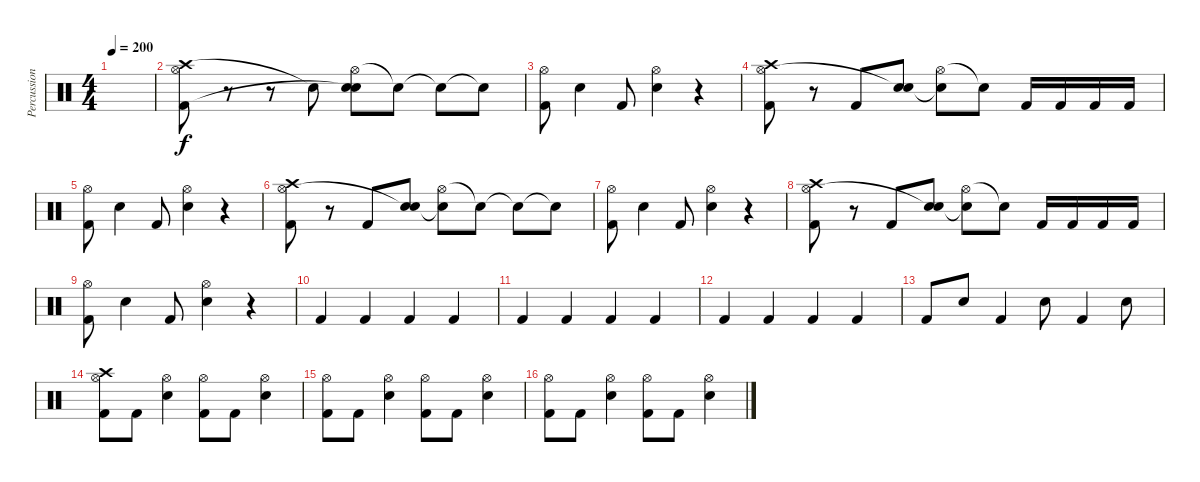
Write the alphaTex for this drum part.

\track ("Percussion" "Percussion") {instrument percussion}
\staff {score}
\articulation defaults
\ts (4 4)
\tempo 200
\clef neutral
\ks c
|
("Crash high (hit)" "Hi-Hat (open)" "Kick (hit) 2").8 r.8 r.8 "Electric Snare (hit)"{t}.8 ("Hi-Hat (open)" "Electric Snare (hit)" "Snare (hit)"{t}).8 "Snare (hit)"{t}.8 "Snare (hit)"{t}.8 "Snare (hit)"{t}.8 |
("Hi-Hat (open)" "Kick (hit) 2").8 "Electric Snare (hit)".4 "Kick (hit) 2".8 ("Hi-Hat (open)" "Electric Snare (hit)").4 r.4 |
("Crash high (hit)" "Hi-Hat (open)" "Kick (hit) 2").8 r.8 "Kick (hit) 2".8 ("Electric Snare (hit)" "Electric Snare (hit)"{t}).8 ("Hi-Hat (open)" "Snare (hit)"{t}).8 "Snare (hit)"{t}.8 "Kick (hit) 2".16 "Kick (hit) 2".16 "Kick (hit) 2".16 "Kick (hit) 2".16 |
("Hi-Hat (open)" "Kick (hit) 2").8 "Electric Snare (hit)".4 "Kick (hit) 2".8 ("Hi-Hat (open)" "Electric Snare (hit)").4 r.4 |
("Crash high (hit)" "Hi-Hat (open)" "Kick (hit) 2").8 r.8 "Kick (hit) 2".8 ("Electric Snare (hit)" "Electric Snare (hit)"{t}).8 ("Hi-Hat (open)" "Snare (hit)"{t}).8 "Snare (hit)"{t}.8 "Snare (hit)"{t}.8 "Snare (hit)"{t}.8 |
("Hi-Hat (open)" "Kick (hit) 2").8 "Electric Snare (hit)".4 "Kick (hit) 2".8 ("Hi-Hat (open)" "Electric Snare (hit)").4 r.4 |
("Crash high (hit)" "Hi-Hat (open)" "Kick (hit) 2").8 r.8 "Kick (hit) 2".8 ("Electric Snare (hit)" "Electric Snare (hit)"{t}).8 ("Hi-Hat (open)" "Snare (hit)"{t}).8 "Snare (hit)"{t}.8 "Kick (hit) 2".16 "Kick (hit) 2".16 "Kick (hit) 2".16 "Kick (hit) 2".16 |
("Hi-Hat (open)" "Kick (hit) 2").8 "Electric Snare (hit)".4 "Kick (hit) 2".8 ("Hi-Hat (open)" "Electric Snare (hit)").4 r.4 |
"Kick (hit) 2".4 "Kick (hit) 2".4 "Kick (hit) 2".4 "Kick (hit) 2".4 |
"Kick (hit) 2".4 "Kick (hit) 2".4 "Kick (hit) 2".4 "Kick (hit) 2".4 |
"Kick (hit) 2".4 "Kick (hit) 2".4 "Kick (hit) 2".4 "Kick (hit) 2".4 |
"Kick (hit) 2".8 "Electric Snare (hit)".8 "Kick (hit) 2".4 "Electric Snare (hit)".8 "Kick (hit) 2".4 "Electric Snare (hit)".8 |
("Hi-Hat (open)" "Crash high (hit)" "Kick (hit) 2").8 "Kick (hit) 2".8 ("Hi-Hat (open)" "Electric Snare (hit)").4 ("Hi-Hat (open)" "Kick (hit) 2").8 "Kick (hit) 2".8 ("Hi-Hat (open)" "Electric Snare (hit)").4 |
("Hi-Hat (open)" "Kick (hit) 2").8 "Kick (hit) 2".8 ("Hi-Hat (open)" "Electric Snare (hit)").4 ("Hi-Hat (open)" "Kick (hit) 2").8 "Kick (hit) 2".8 ("Hi-Hat (open)" "Electric Snare (hit)").4 |
("Hi-Hat (open)" "Kick (hit) 2").8 "Kick (hit) 2".8 ("Hi-Hat (open)" "Electric Snare (hit)").4 ("Hi-Hat (open)" "Kick (hit) 2").8 "Kick (hit) 2".8 ("Hi-Hat (open)" "Electric Snare (hit)").4
